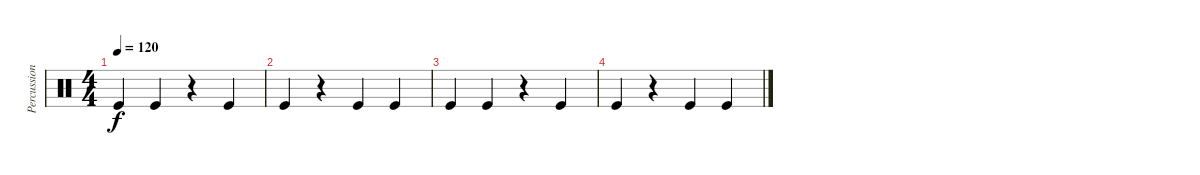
\track ("Percussioni" "Percussion") {instrument percussion}
\staff {score}
\articulation defaults
\ts (4 4)
\tempo 120
\clef neutral
\ks c "Kick (hit)".4{dy f} "Kick (hit)".4
r.4 "Kick (hit)".4 |
"Kick (hit)".4 r.4 "Kick (hit)".4 "Kick (hit)".4 |
"Kick (hit)".4 "Kick (hit)".4 r.4 "Kick (hit)".4 |
"Kick (hit)".4 r.4 "Kick (hit)".4 "Kick (hit)".4
